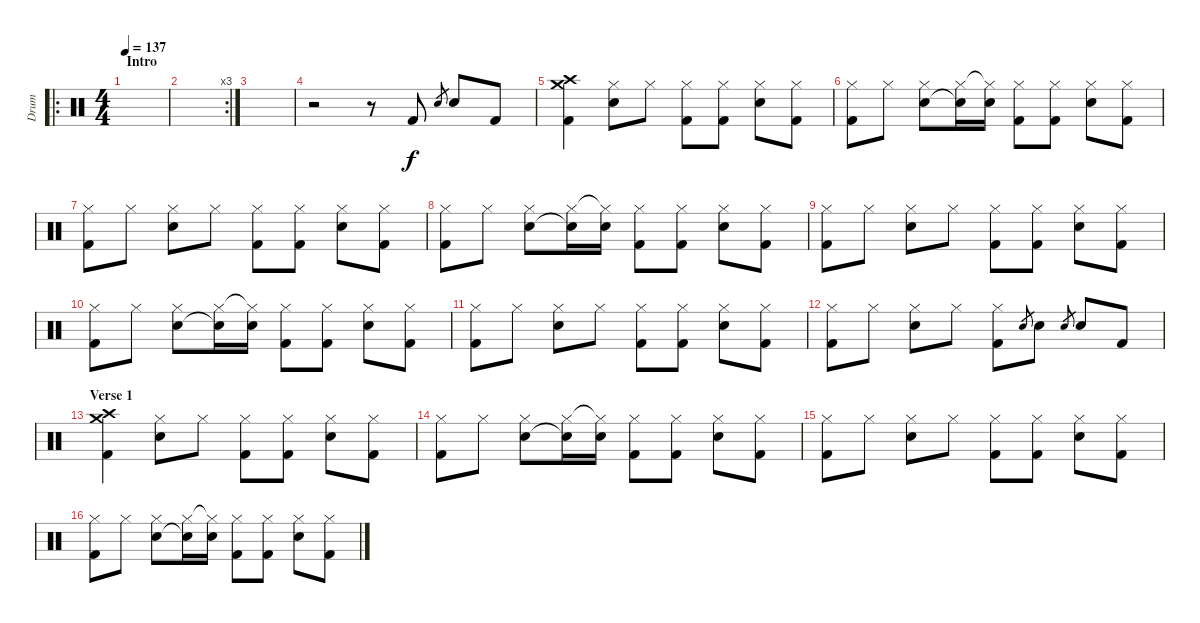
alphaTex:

\track ("Drum" "Drum") {instrument percussion}
\staff {score}
\articulation defaults
\ro
\ts (4 4)
\section ("" "Intro")
\tempo 137
\clef neutral
\ks c
|
\rc 3
|
|
r.2 r.8 "Kick (hit) 2".8 "Electric Snare (hit)".8{gr} "Electric Snare (hit)".8 "Kick (hit) 2".8 |
("Kick (hit) 2" "Crash high (hit)" "Crash medium (hit)").4 ("Hi-Hat (closed)" "Electric Snare (hit)").8 "Hi-Hat (closed)".8 ("Hi-Hat (closed)" "Kick (hit) 2").8 ("Hi-Hat (closed)" "Kick (hit) 2").8 ("Hi-Hat (closed)" "Electric Snare (hit)").8 ("Hi-Hat (closed)" "Kick (hit) 2").8 |
("Hi-Hat (closed)" "Kick (hit) 2").8 "Hi-Hat (closed)".8 ("Hi-Hat (closed)" "Electric Snare (hit)").8 ("Hi-Hat (closed)" "Electric Snare (hit)"{t}).16 ("Hi-Hat (closed)"{t} "Electric Snare (hit)").16 ("Hi-Hat (closed)" "Kick (hit) 2").8 ("Hi-Hat (closed)" "Kick (hit) 2").8 ("Hi-Hat (closed)" "Electric Snare (hit)").8 ("Hi-Hat (closed)" "Kick (hit) 2").8 |
("Hi-Hat (closed)" "Kick (hit) 2").8 "Hi-Hat (closed)".8 ("Hi-Hat (closed)" "Electric Snare (hit)").8 "Hi-Hat (closed)".8 ("Hi-Hat (closed)" "Kick (hit) 2").8 ("Hi-Hat (closed)" "Kick (hit) 2").8 ("Hi-Hat (closed)" "Electric Snare (hit)").8 ("Hi-Hat (closed)" "Kick (hit) 2").8 |
("Hi-Hat (closed)" "Kick (hit) 2").8 "Hi-Hat (closed)".8 ("Hi-Hat (closed)" "Electric Snare (hit)").8 ("Hi-Hat (closed)" "Electric Snare (hit)"{t}).16 ("Hi-Hat (closed)"{t} "Electric Snare (hit)").16 ("Hi-Hat (closed)" "Kick (hit) 2").8 ("Hi-Hat (closed)" "Kick (hit) 2").8 ("Hi-Hat (closed)" "Electric Snare (hit)").8 ("Hi-Hat (closed)" "Kick (hit) 2").8 |
("Hi-Hat (closed)" "Kick (hit) 2").8 "Hi-Hat (closed)".8 ("Hi-Hat (closed)" "Electric Snare (hit)").8 "Hi-Hat (closed)".8 ("Hi-Hat (closed)" "Kick (hit) 2").8 ("Hi-Hat (closed)" "Kick (hit) 2").8 ("Hi-Hat (closed)" "Electric Snare (hit)").8 ("Hi-Hat (closed)" "Kick (hit) 2").8 |
("Hi-Hat (closed)" "Kick (hit) 2").8 "Hi-Hat (closed)".8 ("Hi-Hat (closed)" "Electric Snare (hit)").8 ("Hi-Hat (closed)" "Electric Snare (hit)"{t}).16 ("Hi-Hat (closed)"{t} "Electric Snare (hit)").16 ("Hi-Hat (closed)" "Kick (hit) 2").8 ("Hi-Hat (closed)" "Kick (hit) 2").8 ("Hi-Hat (closed)" "Electric Snare (hit)").8 ("Hi-Hat (closed)" "Kick (hit) 2").8 |
("Hi-Hat (closed)" "Kick (hit) 2").8 "Hi-Hat (closed)".8 ("Hi-Hat (closed)" "Electric Snare (hit)").8 "Hi-Hat (closed)".8 ("Hi-Hat (closed)" "Kick (hit) 2").8 ("Hi-Hat (closed)" "Kick (hit) 2").8 ("Hi-Hat (closed)" "Electric Snare (hit)").8 ("Hi-Hat (closed)" "Kick (hit) 2").8 |
("Hi-Hat (closed)" "Kick (hit) 2").8 "Hi-Hat (closed)".8 ("Hi-Hat (closed)" "Electric Snare (hit)").8 "Hi-Hat (closed)".8 ("Hi-Hat (closed)" "Kick (hit) 2").8 "Electric Snare (hit)".8{gr} "Electric Snare (hit)".8 "Electric Snare (hit)".8{gr} "Electric Snare (hit)".8 "Kick (hit) 2".8 |
\section ("" "Verse 1")
("Kick (hit) 2" "Crash high (hit)" "Crash medium (hit)").4 ("Hi-Hat (closed)" "Electric Snare (hit)").8 "Hi-Hat (closed)".8 ("Hi-Hat (closed)" "Kick (hit) 2").8 ("Hi-Hat (closed)" "Kick (hit) 2").8 ("Hi-Hat (closed)" "Electric Snare (hit)").8 ("Hi-Hat (closed)" "Kick (hit) 2").8 |
("Hi-Hat (closed)" "Kick (hit) 2").8 "Hi-Hat (closed)".8 ("Hi-Hat (closed)" "Electric Snare (hit)").8 ("Hi-Hat (closed)" "Electric Snare (hit)"{t}).16 ("Hi-Hat (closed)"{t} "Electric Snare (hit)").16 ("Hi-Hat (closed)" "Kick (hit) 2").8 ("Hi-Hat (closed)" "Kick (hit) 2").8 ("Hi-Hat (closed)" "Electric Snare (hit)").8 ("Hi-Hat (closed)" "Kick (hit) 2").8 |
("Hi-Hat (closed)" "Kick (hit) 2").8 "Hi-Hat (closed)".8 ("Hi-Hat (closed)" "Electric Snare (hit)").8 "Hi-Hat (closed)".8 ("Hi-Hat (closed)" "Kick (hit) 2").8 ("Hi-Hat (closed)" "Kick (hit) 2").8 ("Hi-Hat (closed)" "Electric Snare (hit)").8 ("Hi-Hat (closed)" "Kick (hit) 2").8 |
("Hi-Hat (closed)" "Kick (hit) 2").8 "Hi-Hat (closed)".8 ("Hi-Hat (closed)" "Electric Snare (hit)").8 ("Hi-Hat (closed)" "Electric Snare (hit)"{t}).16 ("Hi-Hat (closed)"{t} "Electric Snare (hit)").16 ("Hi-Hat (closed)" "Kick (hit) 2").8 ("Hi-Hat (closed)" "Kick (hit) 2").8 ("Hi-Hat (closed)" "Electric Snare (hit)").8 ("Hi-Hat (closed)" "Kick (hit) 2").8
